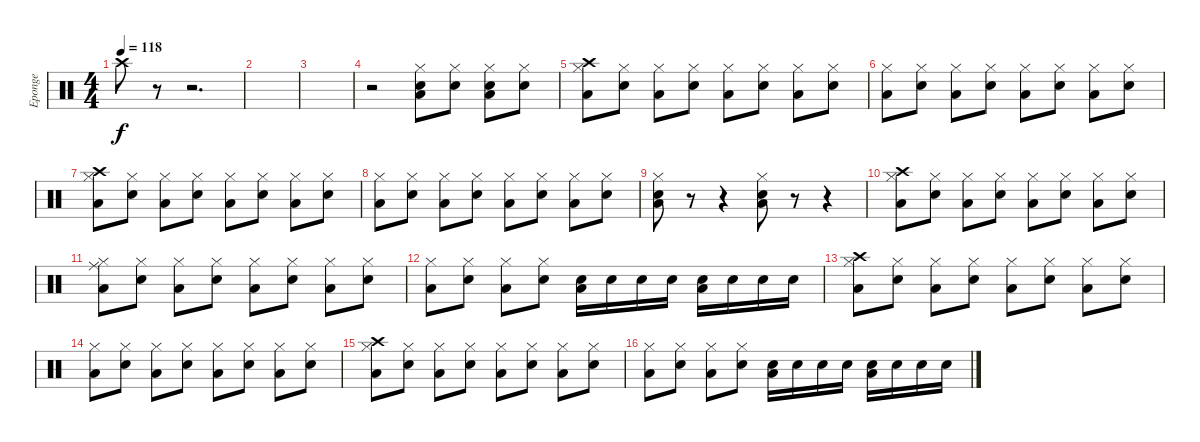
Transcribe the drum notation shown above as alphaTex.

\track ("Eponge" "Eponge") {instrument percussion}
\staff {score}
\articulation defaults
\ts (4 4)
\tempo 118
\clef neutral
\ks c "Crash high (hit)".8{dy f}
r.8 r.2{d} |
|
|
r.2 ("Low Floor Tom (hit)" "Snare (hit) 2" "Hi-Hat (closed)").8 ("Snare (hit) 2" "Hi-Hat (closed)").8 ("Low Floor Tom (hit)" "Snare (hit) 2" "Hi-Hat (closed)").8 ("Snare (hit) 2" "Hi-Hat (closed)").8 |
("Low Floor Tom (hit)" "Hi-Hat (closed)" "Crash high (hit)").8 ("Snare (hit) 2" "Hi-Hat (closed)").8 ("Low Floor Tom (hit)" "Hi-Hat (closed)").8 ("Snare (hit) 2" "Hi-Hat (closed)").8 ("Low Floor Tom (hit)" "Hi-Hat (closed)").8 ("Snare (hit) 2" "Hi-Hat (closed)").8 ("Low Floor Tom (hit)" "Hi-Hat (closed)").8 ("Snare (hit) 2" "Hi-Hat (closed)").8 |
("Low Floor Tom (hit)" "Hi-Hat (closed)").8 ("Snare (hit) 2" "Hi-Hat (closed)").8 ("Low Floor Tom (hit)" "Hi-Hat (closed)").8 ("Snare (hit) 2" "Hi-Hat (closed)").8 ("Low Floor Tom (hit)" "Hi-Hat (closed)").8 ("Snare (hit) 2" "Hi-Hat (closed)").8 ("Low Floor Tom (hit)" "Hi-Hat (closed)").8 ("Snare (hit) 2" "Hi-Hat (closed)").8 |
("Low Floor Tom (hit)" "Hi-Hat (closed)" "Crash high (hit)").8 ("Snare (hit) 2" "Hi-Hat (closed)").8 ("Low Floor Tom (hit)" "Hi-Hat (closed)").8 ("Snare (hit) 2" "Hi-Hat (closed)").8 ("Low Floor Tom (hit)" "Hi-Hat (closed)").8 ("Snare (hit) 2" "Hi-Hat (closed)").8 ("Low Floor Tom (hit)" "Hi-Hat (closed)").8 ("Snare (hit) 2" "Hi-Hat (closed)").8 |
("Low Floor Tom (hit)" "Hi-Hat (closed)").8 ("Snare (hit) 2" "Hi-Hat (closed)").8 ("Low Floor Tom (hit)" "Hi-Hat (closed)").8 ("Snare (hit) 2" "Hi-Hat (closed)").8 ("Low Floor Tom (hit)" "Hi-Hat (closed)").8 ("Snare (hit) 2" "Hi-Hat (closed)").8 ("Low Floor Tom (hit)" "Hi-Hat (closed)").8 ("Snare (hit) 2" "Hi-Hat (closed)").8 |
("Low Floor Tom (hit)" "Snare (hit) 2" "Hi-Hat (closed)").8 r.8 r.4 ("Low Floor Tom (hit)" "Snare (hit) 2" "Hi-Hat (closed)").8 r.8 r.4 |
("Low Floor Tom (hit)" "Hi-Hat (closed)" "Crash high (hit)").8 ("Snare (hit) 2" "Hi-Hat (closed)").8 ("Low Floor Tom (hit)" "Hi-Hat (closed)").8 ("Snare (hit) 2" "Hi-Hat (closed)").8 ("Low Floor Tom (hit)" "Hi-Hat (closed)").8 ("Snare (hit) 2" "Hi-Hat (closed)").8 ("Low Floor Tom (hit)" "Hi-Hat (closed)").8 ("Snare (hit) 2" "Hi-Hat (closed)").8 |
("Low Floor Tom (hit)" "Hi-Hat (closed)" "Ride (middle)").8 ("Snare (hit) 2" "Hi-Hat (closed)").8 ("Low Floor Tom (hit)" "Hi-Hat (closed)").8 ("Snare (hit) 2" "Hi-Hat (closed)").8 ("Low Floor Tom (hit)" "Hi-Hat (closed)").8 ("Snare (hit) 2" "Hi-Hat (closed)").8 ("Low Floor Tom (hit)" "Hi-Hat (closed)").8 ("Snare (hit) 2" "Hi-Hat (closed)").8 |
("Low Floor Tom (hit)" "Hi-Hat (closed)").8 ("Snare (hit) 2" "Hi-Hat (closed)").8 ("Low Floor Tom (hit)" "Hi-Hat (closed)").8 ("Snare (hit) 2" "Hi-Hat (closed)").8 ("Low Floor Tom (hit)" "Snare (hit) 2").16 "Snare (hit) 2".16 "Snare (hit) 2".16 "Snare (hit) 2".16 ("Low Floor Tom (hit)" "Snare (hit) 2").16 "Snare (hit) 2".16 "Snare (hit) 2".16 "Snare (hit) 2".16 |
("Low Floor Tom (hit)" "Hi-Hat (closed)" "Crash high (hit)").8 ("Snare (hit) 2" "Hi-Hat (closed)").8 ("Low Floor Tom (hit)" "Hi-Hat (closed)").8 ("Snare (hit) 2" "Hi-Hat (closed)").8 ("Low Floor Tom (hit)" "Hi-Hat (closed)").8 ("Snare (hit) 2" "Hi-Hat (closed)").8 ("Low Floor Tom (hit)" "Hi-Hat (closed)").8 ("Snare (hit) 2" "Hi-Hat (closed)").8 |
("Low Floor Tom (hit)" "Hi-Hat (closed)").8 ("Snare (hit) 2" "Hi-Hat (closed)").8 ("Low Floor Tom (hit)" "Hi-Hat (closed)").8 ("Snare (hit) 2" "Hi-Hat (closed)").8 ("Low Floor Tom (hit)" "Hi-Hat (closed)").8 ("Snare (hit) 2" "Hi-Hat (closed)").8 ("Low Floor Tom (hit)" "Hi-Hat (closed)").8 ("Snare (hit) 2" "Hi-Hat (closed)").8 |
("Low Floor Tom (hit)" "Hi-Hat (closed)" "Crash high (hit)").8 ("Snare (hit) 2" "Hi-Hat (closed)").8 ("Low Floor Tom (hit)" "Hi-Hat (closed)").8 ("Snare (hit) 2" "Hi-Hat (closed)").8 ("Low Floor Tom (hit)" "Hi-Hat (closed)").8 ("Snare (hit) 2" "Hi-Hat (closed)").8 ("Low Floor Tom (hit)" "Hi-Hat (closed)").8 ("Snare (hit) 2" "Hi-Hat (closed)").8 |
("Low Floor Tom (hit)" "Hi-Hat (closed)").8 ("Snare (hit) 2" "Hi-Hat (closed)").8 ("Low Floor Tom (hit)" "Hi-Hat (closed)").8 ("Snare (hit) 2" "Hi-Hat (closed)").8 ("Low Floor Tom (hit)" "Snare (hit) 2").16 "Snare (hit) 2".16 "Snare (hit) 2".16 "Snare (hit) 2".16 ("Low Floor Tom (hit)" "Snare (hit) 2").16 "Snare (hit) 2".16 "Snare (hit) 2".16 "Snare (hit) 2".16
